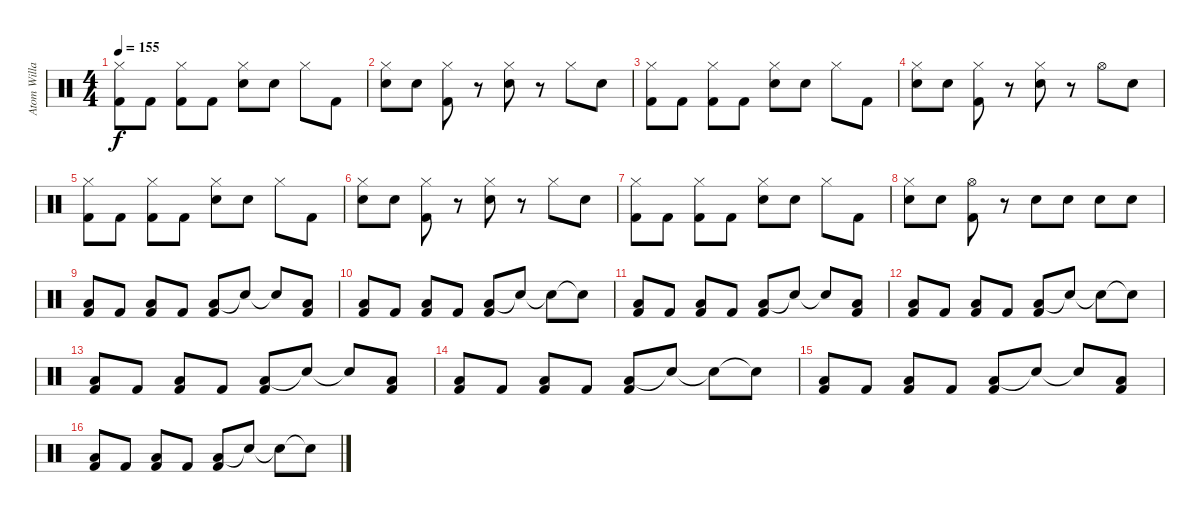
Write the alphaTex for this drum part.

\track ("Atom Willard - Drums" "Atom Willa") {instrument percussion}
\staff {score}
\articulation defaults
\ts (4 4)
\tempo 155
\clef neutral
\ks c
("Kick (hit) 2" "Hi-Hat (closed)").8{dy f} "Kick (hit) 2".8 ("Kick (hit) 2" "Hi-Hat (closed)").8 "Kick (hit) 2".8 ("Electric Snare (hit)" "Hi-Hat (closed)").8 "Snare (hit)".8 "Hi-Hat (closed)".8 "Kick (hit) 2".8 |
("Snare (hit)" "Hi-Hat (closed)").8 "Electric Snare (hit)".8 ("Kick (hit) 2" "Hi-Hat (closed)").8 r.8 ("Electric Snare (hit)" "Hi-Hat (closed)").8 r.8 "Hi-Hat (closed)".8 "Snare (hit)".8 |
("Kick (hit) 2" "Hi-Hat (closed)").8 "Kick (hit) 2".8 ("Kick (hit) 2" "Hi-Hat (closed)").8 "Kick (hit) 2".8 ("Electric Snare (hit)" "Hi-Hat (closed)").8 "Snare (hit)".8 "Hi-Hat (closed)".8 "Kick (hit) 2".8 |
("Snare (hit)" "Hi-Hat (closed)").8 "Electric Snare (hit)".8 ("Kick (hit) 2" "Hi-Hat (closed)").8 r.8 ("Electric Snare (hit)" "Hi-Hat (closed)").8 r.8 "Hi-Hat (open)".8 "Snare (hit)".8 |
("Kick (hit) 2" "Hi-Hat (closed)").8 "Kick (hit) 2".8 ("Kick (hit) 2" "Hi-Hat (closed)").8 "Kick (hit) 2".8 ("Electric Snare (hit)" "Hi-Hat (closed)").8 "Snare (hit)".8 "Hi-Hat (closed)".8 "Kick (hit) 2".8 |
("Snare (hit)" "Hi-Hat (closed)").8 "Electric Snare (hit)".8 ("Kick (hit) 2" "Hi-Hat (closed)").8 r.8 ("Electric Snare (hit)" "Hi-Hat (closed)").8 r.8 "Hi-Hat (closed)".8 "Snare (hit)".8 |
("Kick (hit) 2" "Hi-Hat (closed)").8 "Kick (hit) 2".8 ("Kick (hit) 2" "Hi-Hat (closed)").8 "Kick (hit) 2".8 ("Electric Snare (hit)" "Hi-Hat (closed)").8 "Snare (hit)".8 "Hi-Hat (closed)".8 "Kick (hit) 2".8 |
("Snare (hit)" "Hi-Hat (closed)").8 "Electric Snare (hit)".8 ("Kick (hit) 2" "Hi-Hat (open)").8 r.8 "Electric Snare (hit)".8 "Electric Snare (hit)".8 "Electric Snare (hit)".8 "Snare (hit)".8 |
("Low Tom (hit)" "Kick (hit) 2").8 "Kick (hit) 2".8 ("Low Tom (hit)" "Kick (hit) 2").8 "Kick (hit) 2".8 ("Low Tom (hit)" "Kick (hit) 2").8 "Snare (hit)"{t}.8 "Snare (hit)"{t}.8 ("Low Tom (hit)" "Kick (hit) 2").8 |
("Low Tom (hit)" "Kick (hit) 2").8 "Kick (hit) 2".8 ("Low Tom (hit)" "Kick (hit) 2").8 "Kick (hit) 2".8 ("Low Tom (hit)" "Kick (hit) 2").8 "Snare (hit)"{t}.8 "Snare (hit)"{t}.8 "Snare (hit)"{t}.8 |
("Low Tom (hit)" "Kick (hit) 2").8 "Kick (hit) 2".8 ("Low Tom (hit)" "Kick (hit) 2").8 "Kick (hit) 2".8 ("Low Tom (hit)" "Kick (hit) 2").8 "Snare (hit)"{t}.8 "Snare (hit)"{t}.8 ("Low Tom (hit)" "Kick (hit) 2").8 |
("Low Tom (hit)" "Kick (hit) 2").8 "Kick (hit) 2".8 ("Low Tom (hit)" "Kick (hit) 2").8 "Kick (hit) 2".8 ("Low Tom (hit)" "Kick (hit) 2").8 "Snare (hit)"{t}.8 "Snare (hit)"{t}.8 "Snare (hit)"{t}.8 |
("Low Tom (hit)" "Kick (hit) 2").8 "Kick (hit) 2".8 ("Low Tom (hit)" "Kick (hit) 2").8 "Kick (hit) 2".8 ("Low Tom (hit)" "Kick (hit) 2").8 "Snare (hit)"{t}.8 "Snare (hit)"{t}.8 ("Low Tom (hit)" "Kick (hit) 2").8 |
("Low Tom (hit)" "Kick (hit) 2").8 "Kick (hit) 2".8 ("Low Tom (hit)" "Kick (hit) 2").8 "Kick (hit) 2".8 ("Low Tom (hit)" "Kick (hit) 2").8 "Snare (hit)"{t}.8 "Snare (hit)"{t}.8 "Snare (hit)"{t}.8 |
("Low Tom (hit)" "Kick (hit) 2").8 "Kick (hit) 2".8 ("Low Tom (hit)" "Kick (hit) 2").8 "Kick (hit) 2".8 ("Low Tom (hit)" "Kick (hit) 2").8 "Snare (hit)"{t}.8 "Snare (hit)"{t}.8 ("Low Tom (hit)" "Kick (hit) 2").8 |
("Low Tom (hit)" "Kick (hit) 2").8 "Kick (hit) 2".8 ("Low Tom (hit)" "Kick (hit) 2").8 "Kick (hit) 2".8 ("Low Tom (hit)" "Kick (hit) 2").8 "Snare (hit)"{t}.8 "Snare (hit)"{t}.8 "Snare (hit)"{t}.8
